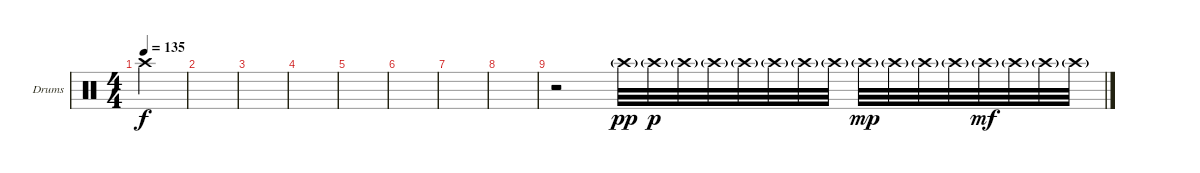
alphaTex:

\bracketExtendMode groupsimilarinstruments
\firstSystemTrackNameOrientation horizontal
\otherSystemsTrackNameOrientation horizontal
\track ("Drumkit" "Drums") {instrument percussion}
\staff {score}
\articulation defaults
\ts (4 4)
\tempo 135
\clef neutral
\scale
0.333333
\ks c "Crash high (hit)".2{dy f}
|
\scale
0.333333 |
\scale
0.333333 |
\scale
0.333333 |
\scale
0.333333 |
\scale
0.333333 |
\scale
0.333333 |
\scale
0.333333 |
\scale
0.333333 r.2 "Crash high (hit)"{g}.32{dy pp} "Crash high (hit)"{g}.32{dy p} "Crash high (hit)"{g}.32 "Crash high (hit)"{g}.32 "Crash high (hit)"{g}.32 "Crash high (hit)"{g}.32 "Crash high (hit)"{g}.32 "Crash high (hit)"{g}.32 "Crash high (hit)"{g}.32{dy mp} "Crash high (hit)"{g}.32 "Crash high (hit)"{g}.32 "Crash high (hit)"{g}.32 "Crash high (hit)"{g}.32{dy mf} "Crash high (hit)"{g}.32 "Crash high (hit)"{g}.32 "Crash high (hit)"{g}.32 |
\scale
0.333333 |
\scale
0.333333 |
\scale
0.333333 |
\scale
0.333333 |
\scale
0.333333 |
\scale
0.333333 |
\scale
0.333333
